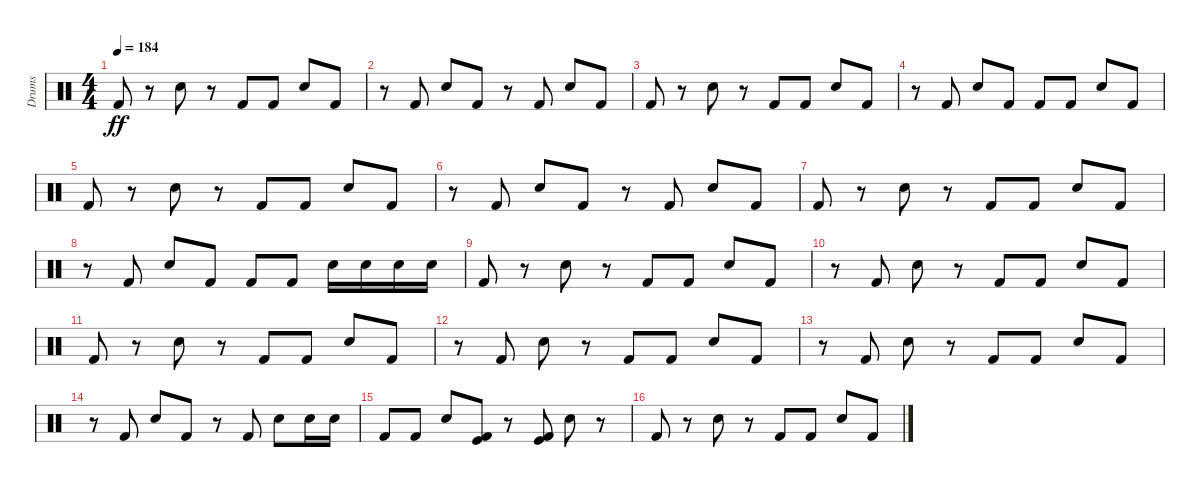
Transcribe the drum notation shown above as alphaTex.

\track ("Drums" "Drums") {instrument percussion}
\staff {score}
\articulation defaults
\ts (4 4)
\tempo 184
\clef neutral
\ks c "Kick (hit) 2".8{dy ff}
r.8 "Electric Snare (hit)".8 r.8 "Kick (hit) 2".8 "Kick (hit) 2".8 "Electric Snare (hit)".8 "Kick (hit) 2".8 |
r.8 "Kick (hit) 2".8 "Electric Snare (hit)".8 "Kick (hit) 2".8 r.8 "Kick (hit) 2".8 "Electric Snare (hit)".8 "Kick (hit) 2".8 |
"Kick (hit) 2".8 r.8 "Electric Snare (hit)".8 r.8 "Kick (hit) 2".8 "Kick (hit) 2".8 "Electric Snare (hit)".8 "Kick (hit) 2".8 |
r.8 "Kick (hit) 2".8 "Electric Snare (hit)".8 "Kick (hit) 2".8 "Kick (hit) 2".8 "Kick (hit) 2".8 "Electric Snare (hit)".8 "Kick (hit) 2".8 |
"Kick (hit) 2".8 r.8 "Electric Snare (hit)".8 r.8 "Kick (hit) 2".8 "Kick (hit) 2".8 "Electric Snare (hit)".8 "Kick (hit) 2".8 |
r.8 "Kick (hit) 2".8 "Electric Snare (hit)".8 "Kick (hit) 2".8 r.8 "Kick (hit) 2".8 "Electric Snare (hit)".8 "Kick (hit) 2".8 |
"Kick (hit) 2".8 r.8 "Electric Snare (hit)".8 r.8 "Kick (hit) 2".8 "Kick (hit) 2".8 "Electric Snare (hit)".8 "Kick (hit) 2".8 |
r.8 "Kick (hit) 2".8 "Electric Snare (hit)".8 "Kick (hit) 2".8 "Kick (hit) 2".8 "Kick (hit) 2".8 "Electric Snare (hit)".16 "Electric Snare (hit)".16 "Electric Snare (hit)".16 "Electric Snare (hit)".16 |
"Kick (hit) 2".8 r.8 "Electric Snare (hit)".8 r.8 "Kick (hit) 2".8 "Kick (hit) 2".8 "Electric Snare (hit)".8 "Kick (hit) 2".8 |
r.8 "Kick (hit) 2".8 "Electric Snare (hit)".8 r.8 "Kick (hit) 2".8 "Kick (hit) 2".8 "Electric Snare (hit)".8 "Kick (hit) 2".8 |
"Kick (hit) 2".8 r.8 "Electric Snare (hit)".8 r.8 "Kick (hit) 2".8 "Kick (hit) 2".8 "Electric Snare (hit)".8 "Kick (hit) 2".8 |
r.8 "Kick (hit) 2".8 "Electric Snare (hit)".8 r.8 "Kick (hit) 2".8 "Kick (hit) 2".8 "Electric Snare (hit)".8 "Kick (hit) 2".8 |
r.8 "Kick (hit) 2".8 "Electric Snare (hit)".8 r.8 "Kick (hit) 2".8 "Kick (hit) 2".8 "Electric Snare (hit)".8 "Kick (hit) 2".8 |
r.8 "Kick (hit) 2".8 "Electric Snare (hit)".8 "Kick (hit) 2".8 r.8 "Kick (hit) 2".8 "Electric Snare (hit)".8 "Electric Snare (hit)".16 "Electric Snare (hit)".16 |
"Kick (hit) 2".8 "Kick (hit) 2".8 "Electric Snare (hit)".8 ("Kick (hit)" "Kick (hit) 2").8 r.8 ("Kick (hit)" "Kick (hit) 2").8 "Electric Snare (hit)".8 r.8 |
"Kick (hit) 2".8 r.8 "Electric Snare (hit)".8 r.8 "Kick (hit) 2".8 "Kick (hit) 2".8 "Electric Snare (hit)".8 "Kick (hit) 2".8
